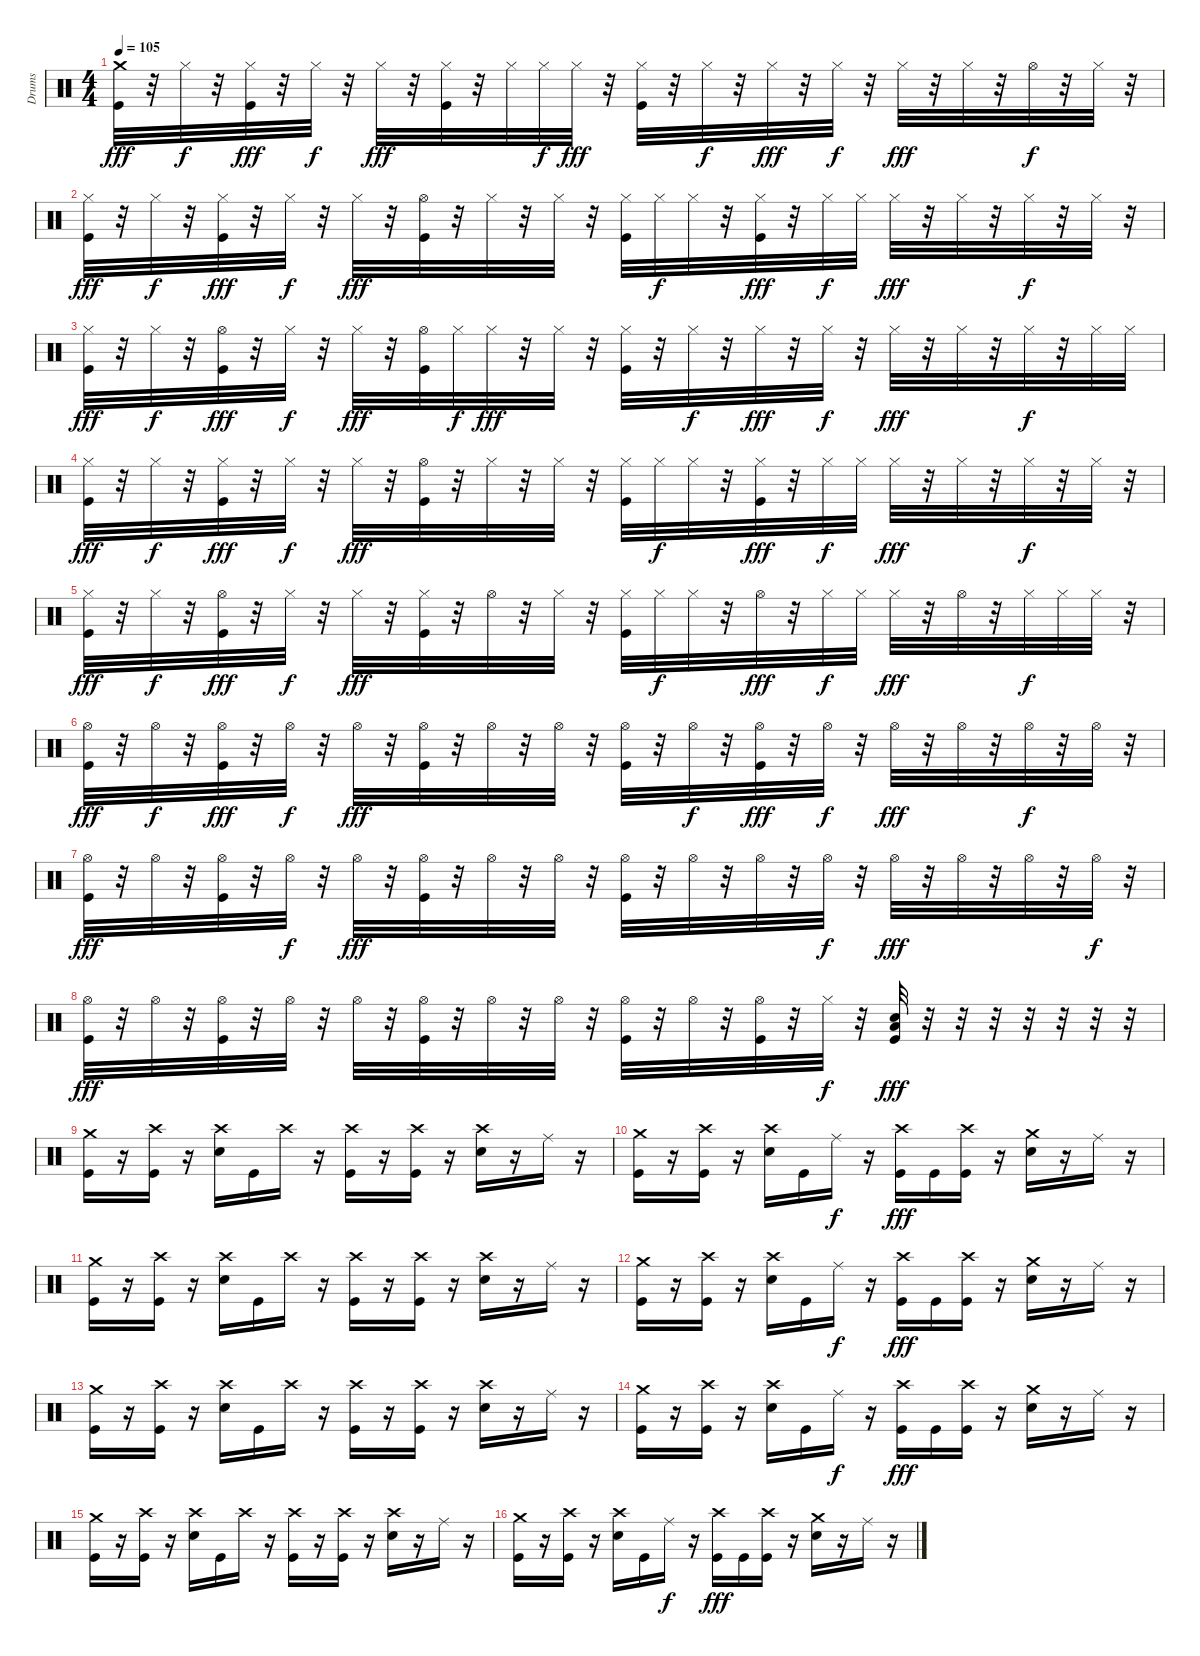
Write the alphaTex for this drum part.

\track ("Drums" "Drums") {instrument percussion}
\staff {score}
\articulation defaults
\ts (4 4)
\tempo 105
\clef neutral
\ks c
("Crash medium (hit)" "Kick (hit)").32{dy fff} r.32 "Hi-Hat (closed)".32{dy f} r.32 ("Hi-Hat (closed)" "Kick (hit)").32{dy fff} r.32 "Hi-Hat (closed)".32{dy f} r.32 "Hi-Hat (closed)".32{dy fff} r.32 ("Hi-Hat (closed)" "Kick (hit)").32 r.32 "Hi-Hat (closed)".32 "Hi-Hat (closed)".32{dy f} "Hi-Hat (closed)".32{dy fff} r.32 ("Hi-Hat (closed)" "Kick (hit)").32 r.32 "Hi-Hat (closed)".32{dy f} r.32 "Hi-Hat (closed)".32{dy fff} r.32 "Hi-Hat (closed)".32{dy f} r.32 "Hi-Hat (closed)".32{dy fff} r.32 "Hi-Hat (closed)".32 r.32 "Hi-Hat (open)".32{dy f} r.32 "Hi-Hat (closed)".32 r.32 |
("Hi-Hat (closed)" "Kick (hit)").32{dy fff} r.32 "Hi-Hat (closed)".32{dy f} r.32 ("Hi-Hat (closed)" "Kick (hit)").32{dy fff} r.32 "Hi-Hat (closed)".32{dy f} r.32 "Hi-Hat (closed)".32{dy fff} r.32 ("Hi-Hat (open)" "Kick (hit)").32 r.32 "Hi-Hat (closed)".32 r.32 "Hi-Hat (closed)".32 r.32 ("Hi-Hat (closed)" "Kick (hit)").32 "Hi-Hat (closed)".32{dy f} "Hi-Hat (closed)".32 r.32 ("Hi-Hat (closed)" "Kick (hit)").32{dy fff} r.32 "Hi-Hat (closed)".32{dy f} "Hi-Hat (closed)".32 "Hi-Hat (closed)".32{dy fff} r.32 "Hi-Hat (closed)".32 r.32 "Hi-Hat (closed)".32{dy f} r.32 "Hi-Hat (closed)".32 r.32 |
("Hi-Hat (closed)" "Kick (hit)").32{dy fff} r.32 "Hi-Hat (closed)".32{dy f} r.32 ("Hi-Hat (open)" "Kick (hit)").32{dy fff} r.32 "Hi-Hat (closed)".32{dy f} r.32 "Hi-Hat (closed)".32{dy fff} r.32 ("Hi-Hat (open)" "Kick (hit)").32 "Hi-Hat (closed)".32{dy f} "Hi-Hat (closed)".32{dy fff} r.32 "Hi-Hat (closed)".32 r.32 ("Hi-Hat (closed)" "Kick (hit)").32 r.32 "Hi-Hat (closed)".32{dy f} r.32 "Hi-Hat (closed)".32{dy fff} r.32 "Hi-Hat (closed)".32{dy f} r.32 "Hi-Hat (closed)".32{dy fff} r.32 "Hi-Hat (closed)".32 r.32 "Hi-Hat (closed)".32{dy f} r.32 "Hi-Hat (closed)".32 "Hi-Hat (closed)".32 |
("Hi-Hat (closed)" "Kick (hit)").32{dy fff} r.32 "Hi-Hat (closed)".32{dy f} r.32 ("Hi-Hat (closed)" "Kick (hit)").32{dy fff} r.32 "Hi-Hat (closed)".32{dy f} r.32 "Hi-Hat (closed)".32{dy fff} r.32 ("Hi-Hat (open)" "Kick (hit)").32 r.32 "Hi-Hat (closed)".32 r.32 "Hi-Hat (closed)".32 r.32 ("Hi-Hat (closed)" "Kick (hit)").32 "Hi-Hat (closed)".32{dy f} "Hi-Hat (closed)".32 r.32 ("Hi-Hat (closed)" "Kick (hit)").32{dy fff} r.32 "Hi-Hat (closed)".32{dy f} "Hi-Hat (closed)".32 "Hi-Hat (closed)".32{dy fff} r.32 "Hi-Hat (closed)".32 r.32 "Hi-Hat (closed)".32{dy f} r.32 "Hi-Hat (closed)".32 r.32 |
("Hi-Hat (closed)" "Kick (hit)").32{dy fff} r.32 "Hi-Hat (closed)".32{dy f} r.32 ("Hi-Hat (open)" "Kick (hit)").32{dy fff} r.32 "Hi-Hat (closed)".32{dy f} r.32 "Hi-Hat (closed)".32{dy fff} r.32 ("Hi-Hat (closed)" "Kick (hit)").32 r.32 "Hi-Hat (open)".32 r.32 "Hi-Hat (closed)".32 r.32 ("Hi-Hat (closed)" "Kick (hit)").32 "Hi-Hat (closed)".32{dy f} "Hi-Hat (closed)".32 r.32 "Hi-Hat (open)".32{dy fff} r.32 "Hi-Hat (closed)".32{dy f} "Hi-Hat (closed)".32 "Hi-Hat (closed)".32{dy fff} r.32 "Hi-Hat (open)".32 r.32 "Hi-Hat (closed)".32{dy f} "Hi-Hat (closed)".32 "Hi-Hat (closed)".32 r.32 |
("Hi-Hat (open)" "Kick (hit)").32{dy fff} r.32 "Hi-Hat (open)".32{dy f} r.32 ("Hi-Hat (open)" "Kick (hit)").32{dy fff} r.32 "Hi-Hat (open)".32{dy f} r.32 "Hi-Hat (open)".32{dy fff} r.32 ("Hi-Hat (open)" "Kick (hit)").32 r.32 "Hi-Hat (open)".32 r.32 "Hi-Hat (open)".32 r.32 ("Hi-Hat (open)" "Kick (hit)").32 r.32 "Hi-Hat (open)".32{dy f} r.32 ("Hi-Hat (open)" "Kick (hit)").32{dy fff} r.32 "Hi-Hat (open)".32{dy f} r.32 "Hi-Hat (open)".32{dy fff} r.32 "Hi-Hat (open)".32 r.32 "Hi-Hat (open)".32{dy f} r.32 "Hi-Hat (open)".32 r.32 |
("Hi-Hat (open)" "Kick (hit)").32{dy fff} r.32 "Hi-Hat (open)".32 r.32 ("Hi-Hat (open)" "Kick (hit)").32 r.32 "Hi-Hat (open)".32{dy f} r.32 "Hi-Hat (open)".32{dy fff} r.32 ("Hi-Hat (open)" "Kick (hit)").32 r.32 "Hi-Hat (open)".32 r.32 "Hi-Hat (open)".32 r.32 ("Hi-Hat (open)" "Kick (hit)").32 r.32 "Hi-Hat (open)".32 r.32 "Hi-Hat (open)".32 r.32 "Hi-Hat (open)".32{dy f} r.32 "Hi-Hat (open)".32{dy fff} r.32 "Hi-Hat (open)".32 r.32 "Hi-Hat (open)".32 r.32 "Hi-Hat (open)".32{dy f} r.32 |
("Hi-Hat (open)" "Kick (hit)").32{dy fff} r.32 "Hi-Hat (open)".32 r.32 ("Hi-Hat (open)" "Kick (hit)").32 r.32 "Hi-Hat (open)".32 r.32 "Hi-Hat (open)".32 r.32 ("Hi-Hat (open)" "Kick (hit)").32 r.32 "Hi-Hat (open)".32 r.32 "Hi-Hat (open)".32 r.32 ("Hi-Hat (open)" "Kick (hit)").32 r.32 "Hi-Hat (open)".32 r.32 ("Hi-Hat (open)" "Kick (hit)").32 r.32 "Hi-Hat (closed)".32{dy f} r.32 ("Low Floor Tom (hit)" "Electric Snare (hit)" "Kick (hit)").32{dy fff} r.32 r.32 r.32 r.32 r.32 r.32 r.32 |
("Crash medium (hit)" "Kick (hit)").16 r.16 ("Crash high (hit)" "Kick (hit)").16 r.16 ("Crash high (hit)" "Electric Snare (hit)").16 "Kick (hit)".16 "Crash high (hit)".16 r.16 ("Crash high (hit)" "Kick (hit)").16 r.16 ("Crash high (hit)" "Kick (hit)").16 r.16 ("Crash high (hit)" "Electric Snare (hit)").16 r.16 "Ride (middle)".16 r.16 |
("Crash medium (hit)" "Kick (hit)").16 r.16 ("Crash high (hit)" "Kick (hit)").16 r.16 ("Crash high (hit)" "Electric Snare (hit)").16 "Kick (hit)".16 "Ride (middle)".16{dy f} r.16 ("Crash high (hit)" "Kick (hit)").16{dy fff} "Kick (hit)".16 ("Crash high (hit)" "Kick (hit)").16 r.16 ("Crash medium (hit)" "Electric Snare (hit)").16 r.16 "Ride (middle)".16 r.16 |
("Crash medium (hit)" "Kick (hit)").16 r.16 ("Crash high (hit)" "Kick (hit)").16 r.16 ("Crash high (hit)" "Electric Snare (hit)").16 "Kick (hit)".16 "Crash high (hit)".16 r.16 ("Crash high (hit)" "Kick (hit)").16 r.16 ("Crash high (hit)" "Kick (hit)").16 r.16 ("Crash high (hit)" "Electric Snare (hit)").16 r.16 "Ride (middle)".16 r.16 |
("Crash medium (hit)" "Kick (hit)").16 r.16 ("Crash high (hit)" "Kick (hit)").16 r.16 ("Crash high (hit)" "Electric Snare (hit)").16 "Kick (hit)".16 "Ride (middle)".16{dy f} r.16 ("Crash high (hit)" "Kick (hit)").16{dy fff} "Kick (hit)".16 ("Crash high (hit)" "Kick (hit)").16 r.16 ("Crash medium (hit)" "Electric Snare (hit)").16 r.16 "Ride (middle)".16 r.16 |
("Crash medium (hit)" "Kick (hit)").16 r.16 ("Crash high (hit)" "Kick (hit)").16 r.16 ("Crash high (hit)" "Electric Snare (hit)").16 "Kick (hit)".16 "Crash high (hit)".16 r.16 ("Crash high (hit)" "Kick (hit)").16 r.16 ("Crash high (hit)" "Kick (hit)").16 r.16 ("Crash high (hit)" "Electric Snare (hit)").16 r.16 "Ride (middle)".16 r.16 |
("Crash medium (hit)" "Kick (hit)").16 r.16 ("Crash high (hit)" "Kick (hit)").16 r.16 ("Crash high (hit)" "Electric Snare (hit)").16 "Kick (hit)".16 "Ride (middle)".16{dy f} r.16 ("Crash high (hit)" "Kick (hit)").16{dy fff} "Kick (hit)".16 ("Crash high (hit)" "Kick (hit)").16 r.16 ("Crash medium (hit)" "Electric Snare (hit)").16 r.16 "Ride (middle)".16 r.16 |
("Crash medium (hit)" "Kick (hit)").16 r.16 ("Crash high (hit)" "Kick (hit)").16 r.16 ("Crash high (hit)" "Electric Snare (hit)").16 "Kick (hit)".16 "Crash high (hit)".16 r.16 ("Crash high (hit)" "Kick (hit)").16 r.16 ("Crash high (hit)" "Kick (hit)").16 r.16 ("Crash high (hit)" "Electric Snare (hit)").16 r.16 "Ride (middle)".16 r.16 |
("Crash medium (hit)" "Kick (hit)").16 r.16 ("Crash high (hit)" "Kick (hit)").16 r.16 ("Crash high (hit)" "Electric Snare (hit)").16 "Kick (hit)".16 "Ride (middle)".16{dy f} r.16 ("Crash high (hit)" "Kick (hit)").16{dy fff} "Kick (hit)".16 ("Crash high (hit)" "Kick (hit)").16 r.16 ("Crash medium (hit)" "Electric Snare (hit)").16 r.16 "Ride (middle)".16 r.16
